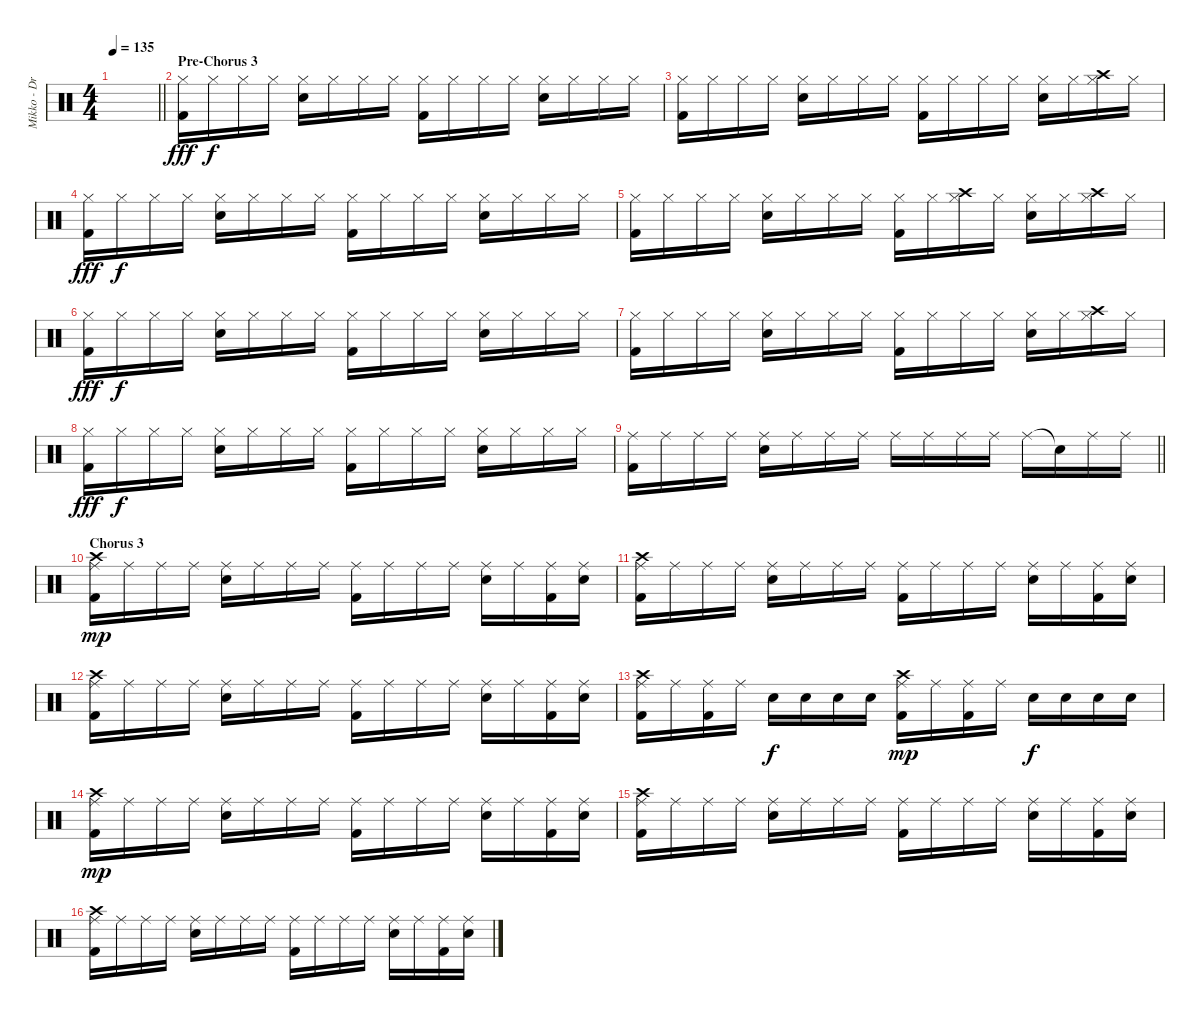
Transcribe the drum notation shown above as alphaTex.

\track ("Mikko - Drums" "Mikko - Dr") {instrument percussion}
\staff {score}
\articulation defaults
\ts (4 4)
\tempo 135
\clef neutral
\barLineRight lightlight
\ks c
|
\section ("" "Pre-Chorus 3")
("Hi-Hat (closed)" "Kick (hit) 2").16{dy fff} "Hi-Hat (closed)".16{dy f} "Hi-Hat (closed)".16 "Hi-Hat (closed)".16 ("Hi-Hat (closed)" "Snare (hit) 2").16 "Hi-Hat (closed)".16 "Hi-Hat (closed)".16 "Hi-Hat (closed)".16 ("Hi-Hat (closed)" "Kick (hit) 2").16 "Hi-Hat (closed)".16 "Hi-Hat (closed)".16 "Hi-Hat (closed)".16 ("Hi-Hat (closed)" "Snare (hit) 2").16 "Hi-Hat (closed)".16 "Hi-Hat (closed)".16 "Hi-Hat (closed)".16 |
("Hi-Hat (closed)" "Kick (hit) 2").16 "Hi-Hat (closed)".16 "Hi-Hat (closed)".16 "Hi-Hat (closed)".16 ("Hi-Hat (closed)" "Snare (hit) 2").16 "Hi-Hat (closed)".16 "Hi-Hat (closed)".16 "Hi-Hat (closed)".16 ("Hi-Hat (closed)" "Kick (hit) 2").16 "Hi-Hat (closed)".16 "Hi-Hat (closed)".16 "Hi-Hat (closed)".16 ("Hi-Hat (closed)" "Snare (hit) 2").16 "Hi-Hat (closed)".16 ("Hi-Hat (closed)" "Crash high (hit)").16 "Hi-Hat (closed)".16 |
("Hi-Hat (closed)" "Kick (hit) 2").16{dy fff} "Hi-Hat (closed)".16{dy f} "Hi-Hat (closed)".16 "Hi-Hat (closed)".16 ("Hi-Hat (closed)" "Snare (hit) 2").16 "Hi-Hat (closed)".16 "Hi-Hat (closed)".16 "Hi-Hat (closed)".16 ("Hi-Hat (closed)" "Kick (hit) 2").16 "Hi-Hat (closed)".16 "Hi-Hat (closed)".16 "Hi-Hat (closed)".16 ("Hi-Hat (closed)" "Snare (hit) 2").16 "Hi-Hat (closed)".16 "Hi-Hat (closed)".16 "Hi-Hat (closed)".16 |
("Hi-Hat (closed)" "Kick (hit) 2").16 "Hi-Hat (closed)".16 "Hi-Hat (closed)".16 "Hi-Hat (closed)".16 ("Hi-Hat (closed)" "Snare (hit) 2").16 "Hi-Hat (closed)".16 "Hi-Hat (closed)".16 "Hi-Hat (closed)".16 ("Hi-Hat (closed)" "Kick (hit) 2").16 "Hi-Hat (closed)".16 ("Hi-Hat (closed)" "Crash high (hit)").16 "Hi-Hat (closed)".16 ("Hi-Hat (closed)" "Snare (hit) 2").16 "Hi-Hat (closed)".16 ("Hi-Hat (closed)" "Crash high (hit)").16 "Hi-Hat (closed)".16 |
("Hi-Hat (closed)" "Kick (hit) 2").16{dy fff} "Hi-Hat (closed)".16{dy f} "Hi-Hat (closed)".16 "Hi-Hat (closed)".16 ("Hi-Hat (closed)" "Snare (hit) 2").16 "Hi-Hat (closed)".16 "Hi-Hat (closed)".16 "Hi-Hat (closed)".16 ("Hi-Hat (closed)" "Kick (hit) 2").16 "Hi-Hat (closed)".16 "Hi-Hat (closed)".16 "Hi-Hat (closed)".16 ("Hi-Hat (closed)" "Snare (hit) 2").16 "Hi-Hat (closed)".16 "Hi-Hat (closed)".16 "Hi-Hat (closed)".16 |
("Hi-Hat (closed)" "Kick (hit) 2").16 "Hi-Hat (closed)".16 "Hi-Hat (closed)".16 "Hi-Hat (closed)".16 ("Hi-Hat (closed)" "Snare (hit) 2").16 "Hi-Hat (closed)".16 "Hi-Hat (closed)".16 "Hi-Hat (closed)".16 ("Hi-Hat (closed)" "Kick (hit) 2").16 "Hi-Hat (closed)".16 "Hi-Hat (closed)".16 "Hi-Hat (closed)".16 ("Hi-Hat (closed)" "Snare (hit) 2").16 "Hi-Hat (closed)".16 ("Hi-Hat (closed)" "Crash high (hit)").16 "Hi-Hat (closed)".16 |
("Hi-Hat (closed)" "Kick (hit) 2").16{dy fff} "Hi-Hat (closed)".16{dy f} "Hi-Hat (closed)".16 "Hi-Hat (closed)".16 ("Hi-Hat (closed)" "Snare (hit) 2").16 "Hi-Hat (closed)".16 "Hi-Hat (closed)".16 "Hi-Hat (closed)".16 ("Hi-Hat (closed)" "Kick (hit) 2").16 "Hi-Hat (closed)".16 "Hi-Hat (closed)".16 "Hi-Hat (closed)".16 ("Hi-Hat (closed)" "Snare (hit) 2").16 "Hi-Hat (closed)".16 "Hi-Hat (closed)".16 "Hi-Hat (closed)".16 |
\barLineRight lightlight
("Ride (middle)" "Kick (hit) 2").16 "Ride (middle)".16 "Ride (middle)".16 "Ride (middle)".16 ("Ride (middle)" "Snare (hit) 2").16 "Ride (middle)".16 "Ride (middle)".16 "Ride (middle)".16 "Ride (middle)".16 "Ride (middle)".16 "Ride (middle)".16 "Ride (middle)".16 "Ride (middle)".16 "Snare (hit)"{t}.16 "Ride (middle)".16 "Ride (middle)".16 |
\section ("" "Chorus 3")
("Ride (middle)" "Crash high (hit)" "Kick (hit) 2").16{dy mp} "Ride (middle)".16 "Ride (middle)".16 "Ride (middle)".16 ("Ride (middle)" "Snare (hit) 2").16 "Ride (middle)".16 "Ride (middle)".16 "Ride (middle)".16 ("Ride (middle)" "Kick (hit) 2").16 "Ride (middle)".16 "Ride (middle)".16 "Ride (middle)".16 ("Ride (middle)" "Snare (hit) 2").16 "Ride (middle)".16 ("Ride (middle)" "Kick (hit) 2").16 ("Ride (middle)" "Snare (hit) 2").16 |
("Ride (middle)" "Crash high (hit)" "Kick (hit) 2").16 "Ride (middle)".16 "Ride (middle)".16 "Ride (middle)".16 ("Ride (middle)" "Snare (hit) 2").16 "Ride (middle)".16 "Ride (middle)".16 "Ride (middle)".16 ("Ride (middle)" "Kick (hit) 2").16 "Ride (middle)".16 "Ride (middle)".16 "Ride (middle)".16 ("Ride (middle)" "Snare (hit) 2").16 "Ride (middle)".16 ("Ride (middle)" "Kick (hit) 2").16 ("Ride (middle)" "Snare (hit) 2").16 |
("Ride (middle)" "Crash high (hit)" "Kick (hit) 2").16 "Ride (middle)".16 "Ride (middle)".16 "Ride (middle)".16 ("Ride (middle)" "Snare (hit) 2").16 "Ride (middle)".16 "Ride (middle)".16 "Ride (middle)".16 ("Ride (middle)" "Kick (hit) 2").16 "Ride (middle)".16 "Ride (middle)".16 "Ride (middle)".16 ("Ride (middle)" "Snare (hit) 2").16 "Ride (middle)".16 ("Ride (middle)" "Kick (hit) 2").16 ("Ride (middle)" "Snare (hit) 2").16 |
("Ride (middle)" "Crash high (hit)" "Kick (hit) 2").16 "Ride (middle)".16 ("Ride (middle)" "Kick (hit) 2").16 "Ride (middle)".16 "Snare (hit) 2".16{dy f} "Snare (hit) 2".16 "Snare (hit) 2".16 "Snare (hit) 2".16 ("Ride (middle)" "Crash high (hit)" "Kick (hit) 2").16{dy mp} "Ride (middle)".16 ("Ride (middle)" "Kick (hit) 2").16 "Ride (middle)".16 "Snare (hit) 2".16{dy f} "Snare (hit) 2".16 "Snare (hit) 2".16 "Snare (hit) 2".16 |
("Ride (middle)" "Crash high (hit)" "Kick (hit) 2").16{dy mp} "Ride (middle)".16 "Ride (middle)".16 "Ride (middle)".16 ("Ride (middle)" "Snare (hit) 2").16 "Ride (middle)".16 "Ride (middle)".16 "Ride (middle)".16 ("Ride (middle)" "Kick (hit) 2").16 "Ride (middle)".16 "Ride (middle)".16 "Ride (middle)".16 ("Ride (middle)" "Snare (hit) 2").16 "Ride (middle)".16 ("Ride (middle)" "Kick (hit) 2").16 ("Ride (middle)" "Snare (hit) 2").16 |
("Ride (middle)" "Crash high (hit)" "Kick (hit) 2").16 "Ride (middle)".16 "Ride (middle)".16 "Ride (middle)".16 ("Ride (middle)" "Snare (hit) 2").16 "Ride (middle)".16 "Ride (middle)".16 "Ride (middle)".16 ("Ride (middle)" "Kick (hit) 2").16 "Ride (middle)".16 "Ride (middle)".16 "Ride (middle)".16 ("Ride (middle)" "Snare (hit) 2").16 "Ride (middle)".16 ("Ride (middle)" "Kick (hit) 2").16 ("Ride (middle)" "Snare (hit) 2").16 |
("Ride (middle)" "Crash high (hit)" "Kick (hit) 2").16 "Ride (middle)".16 "Ride (middle)".16 "Ride (middle)".16 ("Ride (middle)" "Snare (hit) 2").16 "Ride (middle)".16 "Ride (middle)".16 "Ride (middle)".16 ("Ride (middle)" "Kick (hit) 2").16 "Ride (middle)".16 "Ride (middle)".16 "Ride (middle)".16 ("Ride (middle)" "Snare (hit) 2").16 "Ride (middle)".16 ("Ride (middle)" "Kick (hit) 2").16 ("Ride (middle)" "Snare (hit) 2").16
